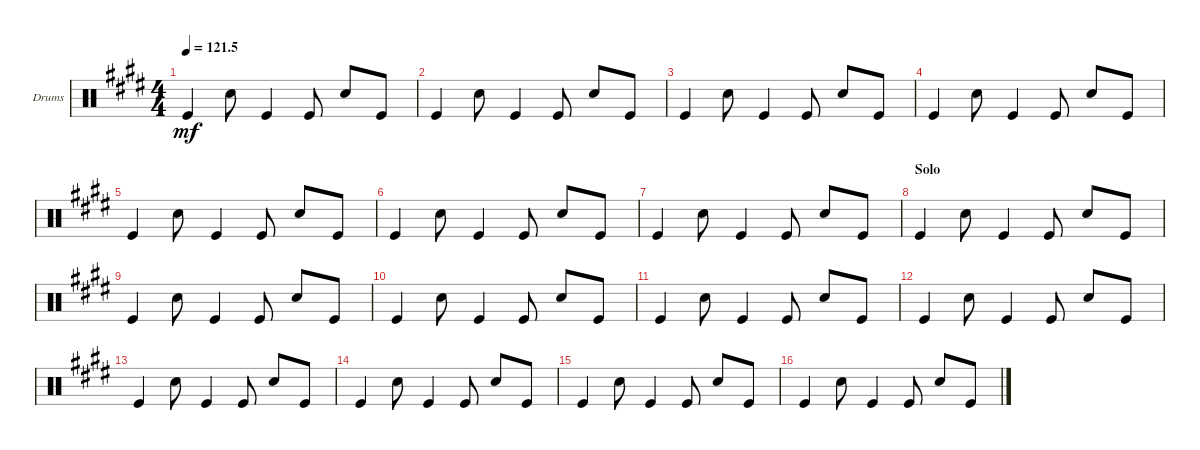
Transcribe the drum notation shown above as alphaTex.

\defaultSystemsLayout 4
\bracketExtendMode groupsimilarinstruments
\firstSystemTrackNameOrientation horizontal
\otherSystemsTrackNameOrientation horizontal
\track ("Drumkit" "Drums") {solo instrument percussion}
\staff {score}
\articulation defaults
\ts (4 4)
\tempo
121.5
\accidentals auto
\clef neutral
\ottava regular
\simile none
\ks e "Kick (hit)".4{dy mf} "Snare (hit) 2".8 "Kick (hit)".4 "Kick (hit)".8 "Snare (hit) 2".8 "Kick (hit)".8
|
"Kick (hit)".4 "Snare (hit) 2".8 "Kick (hit)".4 "Kick (hit)".8 "Snare (hit) 2".8 "Kick (hit)".8 |
"Kick (hit)".4 "Snare (hit) 2".8 "Kick (hit)".4 "Kick (hit)".8 "Snare (hit) 2".8 "Kick (hit)".8 |
"Kick (hit)".4 "Snare (hit) 2".8 "Kick (hit)".4 "Kick (hit)".8 "Snare (hit) 2".8 "Kick (hit)".8 |
"Kick (hit)".4 "Snare (hit) 2".8 "Kick (hit)".4 "Kick (hit)".8 "Snare (hit) 2".8 "Kick (hit)".8 |
"Kick (hit)".4 "Snare (hit) 2".8 "Kick (hit)".4 "Kick (hit)".8 "Snare (hit) 2".8 "Kick (hit)".8 |
"Kick (hit)".4 "Snare (hit) 2".8 "Kick (hit)".4 "Kick (hit)".8 "Snare (hit) 2".8 "Kick (hit)".8 |
\section ("" "Solo")
"Kick (hit)".4 "Snare (hit) 2".8 "Kick (hit)".4 "Kick (hit)".8 "Snare (hit) 2".8 "Kick (hit)".8 |
"Kick (hit)".4 "Snare (hit) 2".8 "Kick (hit)".4 "Kick (hit)".8 "Snare (hit) 2".8 "Kick (hit)".8 |
"Kick (hit)".4 "Snare (hit) 2".8 "Kick (hit)".4 "Kick (hit)".8 "Snare (hit) 2".8 "Kick (hit)".8 |
"Kick (hit)".4 "Snare (hit) 2".8 "Kick (hit)".4 "Kick (hit)".8 "Snare (hit) 2".8 "Kick (hit)".8 |
"Kick (hit)".4 "Snare (hit) 2".8 "Kick (hit)".4 "Kick (hit)".8 "Snare (hit) 2".8 "Kick (hit)".8 |
"Kick (hit)".4 "Snare (hit) 2".8 "Kick (hit)".4 "Kick (hit)".8 "Snare (hit) 2".8 "Kick (hit)".8 |
"Kick (hit)".4 "Snare (hit) 2".8 "Kick (hit)".4 "Kick (hit)".8 "Snare (hit) 2".8 "Kick (hit)".8 |
"Kick (hit)".4 "Snare (hit) 2".8 "Kick (hit)".4 "Kick (hit)".8 "Snare (hit) 2".8 "Kick (hit)".8 |
"Kick (hit)".4 "Snare (hit) 2".8 "Kick (hit)".4 "Kick (hit)".8 "Snare (hit) 2".8 "Kick (hit)".8
